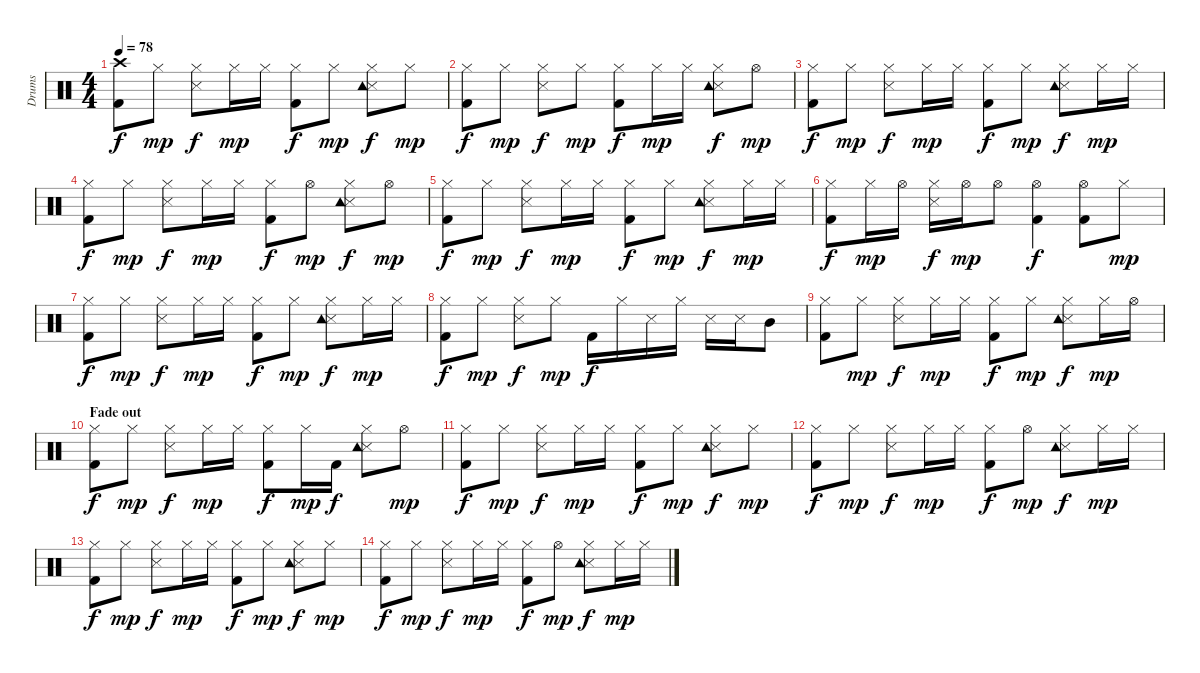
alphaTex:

\track ("Drums" "Drums") {instrument percussion}
\staff {score}
\articulation defaults
\ts (4 4)
\tempo 78
\clef neutral
\ks c
("Crash high (hit)" "Kick (hit) 2").8{dy f} "Hi-Hat (closed)".8{dy mp} ("Hi-Hat (closed)" "Snare (side stick) 3").8{dy f} "Hi-Hat (closed)".16{dy mp} "Hi-Hat (closed)".16 ("Hi-Hat (closed)" "Kick (hit) 2").8{dy f} "Hi-Hat (closed)".8{dy mp} ("Hi-Hat (closed)" "Snare (side stick) 3" "Tambourine (hit)").8{dy f} "Hi-Hat (closed)".8{dy mp} |
("Hi-Hat (closed)" "Kick (hit) 2").8{dy f} "Hi-Hat (closed)".8{dy mp} ("Hi-Hat (closed)" "Snare (side stick) 3").8{dy f} "Hi-Hat (closed)".8{dy mp} ("Hi-Hat (closed)" "Kick (hit) 2").8{dy f} "Hi-Hat (closed)".16{dy mp} "Hi-Hat (closed)".16 ("Hi-Hat (closed)" "Snare (side stick) 3" "Tambourine (hit)").8{dy f} "Hi-Hat (open)".8{dy mp} |
("Hi-Hat (closed)" "Kick (hit) 2").8{dy f} "Hi-Hat (closed)".8{dy mp} ("Hi-Hat (closed)" "Snare (side stick) 3").8{dy f} "Hi-Hat (closed)".16{dy mp} "Hi-Hat (closed)".16 ("Hi-Hat (closed)" "Kick (hit) 2").8{dy f} "Hi-Hat (closed)".8{dy mp} ("Hi-Hat (closed)" "Snare (side stick) 3" "Tambourine (hit)").8{dy f} "Hi-Hat (closed)".16{dy mp} "Hi-Hat (closed)".16 |
("Hi-Hat (closed)" "Kick (hit) 2").8{dy f} "Hi-Hat (closed)".8{dy mp} ("Hi-Hat (closed)" "Snare (side stick) 3").8{dy f} "Hi-Hat (closed)".16{dy mp} "Hi-Hat (closed)".16 ("Hi-Hat (closed)" "Kick (hit) 2").8{dy f} "Hi-Hat (open)".8{dy mp} ("Hi-Hat (closed)" "Snare (side stick) 3" "Tambourine (hit)").8{dy f} "Hi-Hat (open)".8{dy mp} |
("Hi-Hat (closed)" "Kick (hit) 2").8{dy f} "Hi-Hat (closed)".8{dy mp} ("Hi-Hat (closed)" "Snare (side stick) 3").8{dy f} "Hi-Hat (closed)".16{dy mp} "Hi-Hat (closed)".16 ("Hi-Hat (closed)" "Kick (hit) 2").8{dy f} "Hi-Hat (closed)".8{dy mp} ("Hi-Hat (closed)" "Snare (side stick) 3" "Tambourine (hit)").8{dy f} "Hi-Hat (closed)".16{dy mp} "Hi-Hat (closed)".16 |
("Hi-Hat (closed)" "Kick (hit) 2").8{dy f} "Hi-Hat (closed)".16{dy mp} "Hi-Hat (open)".16 ("Hi-Hat (closed)" "Snare (side stick) 3").16{dy f} "Hi-Hat (open)".16{dy mp} "Hi-Hat (open)".8 ("Hi-Hat (open)" "Kick (hit) 2").4{dy f} ("Hi-Hat (open)" "Kick (hit) 2").8 "Hi-Hat (closed)".8{dy mp} |
("Hi-Hat (closed)" "Kick (hit) 2").8{dy f} "Hi-Hat (closed)".8{dy mp} ("Hi-Hat (closed)" "Snare (side stick) 3").8{dy f} "Hi-Hat (closed)".16{dy mp} "Hi-Hat (closed)".16 ("Hi-Hat (closed)" "Kick (hit) 2").8{dy f} "Hi-Hat (closed)".8{dy mp} ("Hi-Hat (closed)" "Snare (side stick) 3" "Tambourine (hit)").8{dy f} "Hi-Hat (closed)".16{dy mp} "Hi-Hat (closed)".16 |
("Hi-Hat (closed)" "Kick (hit) 2").8{dy f} "Hi-Hat (closed)".8{dy mp} ("Hi-Hat (closed)" "Snare (side stick) 3").8{dy f} "Hi-Hat (closed)".8{dy mp} "Kick (hit) 2".16{dy f} "Hi-Hat (closed)".16 "Snare (side stick) 3".16 "Hi-Hat (closed)".16 "Snare (side stick) 3".16 "Snare (side stick) 3".16 "Mid Tom (hit)".8 |
("Hi-Hat (closed)" "Kick (hit) 2").8 "Hi-Hat (closed)".8{dy mp} ("Hi-Hat (closed)" "Snare (side stick) 3").8{dy f} "Hi-Hat (closed)".16{dy mp} "Hi-Hat (closed)".16 ("Hi-Hat (closed)" "Kick (hit) 2").8{dy f} "Hi-Hat (closed)".8{dy mp} ("Hi-Hat (closed)" "Snare (side stick) 3" "Tambourine (hit)").8{dy f} "Hi-Hat (closed)".16{dy mp} "Hi-Hat (open)".16 |
\section ("" "Fade out")
("Hi-Hat (closed)" "Kick (hit) 2").8{dy f} "Hi-Hat (closed)".8{dy mp} ("Hi-Hat (closed)" "Snare (side stick) 3").8{dy f} "Hi-Hat (closed)".16{dy mp} "Hi-Hat (closed)".16 ("Hi-Hat (closed)" "Kick (hit) 2").8{dy f} "Hi-Hat (closed)".16{dy mp} "Kick (hit) 2".16{dy f} ("Hi-Hat (closed)" "Snare (side stick) 3" "Tambourine (hit)").8 "Hi-Hat (open)".8{dy mp} |
("Hi-Hat (closed)" "Kick (hit) 2").8{dy f} "Hi-Hat (closed)".8{dy mp} ("Hi-Hat (closed)" "Snare (side stick) 3").8{dy f} "Hi-Hat (closed)".16{dy mp} "Hi-Hat (closed)".16 ("Hi-Hat (closed)" "Kick (hit) 2").8{dy f} "Hi-Hat (closed)".8{dy mp} ("Hi-Hat (closed)" "Snare (side stick) 3" "Tambourine (hit)").8{dy f} "Hi-Hat (closed)".8{dy mp} |
("Hi-Hat (closed)" "Kick (hit) 2").8{dy f} "Hi-Hat (closed)".8{dy mp} ("Hi-Hat (closed)" "Snare (side stick) 3").8{dy f} "Hi-Hat (closed)".16{dy mp} "Hi-Hat (closed)".16 ("Hi-Hat (closed)" "Kick (hit) 2").8{dy f} "Hi-Hat (open)".8{dy mp} ("Hi-Hat (closed)" "Snare (side stick) 3" "Tambourine (hit)").8{dy f} "Hi-Hat (closed)".16{dy mp} "Hi-Hat (closed)".16 |
("Hi-Hat (closed)" "Kick (hit) 2").8{dy f} "Hi-Hat (closed)".8{dy mp} ("Hi-Hat (closed)" "Snare (side stick) 3").8{dy f} "Hi-Hat (closed)".16{dy mp} "Hi-Hat (closed)".16 ("Hi-Hat (closed)" "Kick (hit) 2").8{dy f} "Hi-Hat (closed)".8{dy mp} ("Hi-Hat (closed)" "Snare (side stick) 3" "Tambourine (hit)").8{dy f} "Hi-Hat (closed)".8{dy mp} |
("Hi-Hat (closed)" "Kick (hit) 2").8{dy f} "Hi-Hat (closed)".8{dy mp} ("Hi-Hat (closed)" "Snare (side stick) 3").8{dy f} "Hi-Hat (closed)".16{dy mp} "Hi-Hat (closed)".16 ("Hi-Hat (closed)" "Kick (hit) 2").8{dy f} "Hi-Hat (open)".8{dy mp} ("Hi-Hat (closed)" "Snare (side stick) 3" "Tambourine (hit)").8{dy f} "Hi-Hat (closed)".16{dy mp} "Hi-Hat (closed)".16
